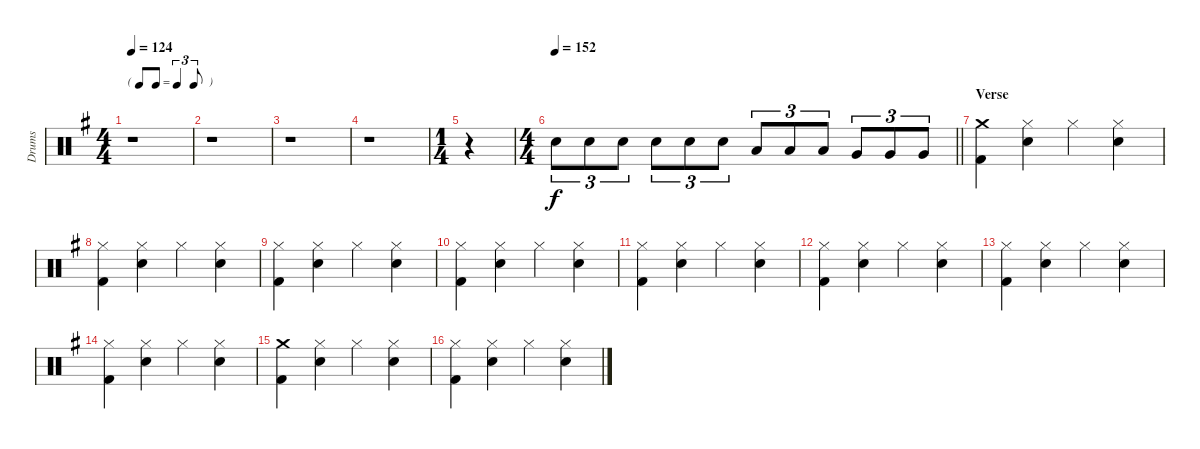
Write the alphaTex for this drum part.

\track ("Drums" "Drums") {instrument percussion}
\staff {score}
\articulation defaults
\ts (4 4)
\tf triplet8th
\tempo 124
\clef neutral
\ks g
r.1{dy f} |
r.1 |
r.1 |
r.1 |
\ts (1 4)
r.4 |
\ts (4 4)
\tempo 152
\barLineRight lightlight "Snare (hit) 2".8{tu (3 2)} "Snare (hit) 2".8{tu (3 2)} "Snare (hit) 2".8{tu (3 2)} "Snare (hit) 2".8{tu (3 2)} "Snare (hit) 2".8{tu (3 2)} "Snare (hit) 2".8{tu (3 2)} "Low Tom (hit)".8{tu (3 2)} "Low Tom (hit)".8{tu (3 2)} "Low Tom (hit)".8{tu (3 2)} "Very Low Tom (hit)".8{tu (3 2)} "Very Low Tom (hit)".8{tu (3 2)} "Very Low Tom (hit)".8{tu (3 2)}
|
\section ("" "Verse")
("Crash medium (hit)" "Kick (hit) 2").4 ("Hi-Hat (closed)" "Snare (hit) 2").4 "Hi-Hat (closed)".4 ("Hi-Hat (closed)" "Snare (hit) 2").4 |
("Hi-Hat (closed)" "Kick (hit) 2").4 ("Hi-Hat (closed)" "Snare (hit) 2").4 "Hi-Hat (closed)".4 ("Hi-Hat (closed)" "Snare (hit) 2").4 |
("Hi-Hat (closed)" "Kick (hit) 2").4 ("Hi-Hat (closed)" "Snare (hit) 2").4 "Hi-Hat (closed)".4 ("Hi-Hat (closed)" "Snare (hit) 2").4 |
("Hi-Hat (closed)" "Kick (hit) 2").4 ("Hi-Hat (closed)" "Snare (hit) 2").4 "Hi-Hat (closed)".4 ("Hi-Hat (closed)" "Snare (hit) 2").4 |
("Hi-Hat (closed)" "Kick (hit) 2").4 ("Hi-Hat (closed)" "Snare (hit) 2").4 "Hi-Hat (closed)".4 ("Hi-Hat (closed)" "Snare (hit) 2").4 |
("Hi-Hat (closed)" "Kick (hit) 2").4 ("Hi-Hat (closed)" "Snare (hit) 2").4 "Hi-Hat (closed)".4 ("Hi-Hat (closed)" "Snare (hit) 2").4 |
("Hi-Hat (closed)" "Kick (hit) 2").4 ("Hi-Hat (closed)" "Snare (hit) 2").4 "Hi-Hat (closed)".4 ("Hi-Hat (closed)" "Snare (hit) 2").4 |
("Hi-Hat (closed)" "Kick (hit) 2").4 ("Hi-Hat (closed)" "Snare (hit) 2").4 "Hi-Hat (closed)".4 ("Hi-Hat (closed)" "Snare (hit) 2").4 |
("Crash medium (hit)" "Kick (hit) 2").4 ("Hi-Hat (closed)" "Snare (hit) 2").4 "Hi-Hat (closed)".4 ("Hi-Hat (closed)" "Snare (hit) 2").4 |
("Hi-Hat (closed)" "Kick (hit) 2").4 ("Hi-Hat (closed)" "Snare (hit) 2").4 "Hi-Hat (closed)".4 ("Hi-Hat (closed)" "Snare (hit) 2").4
